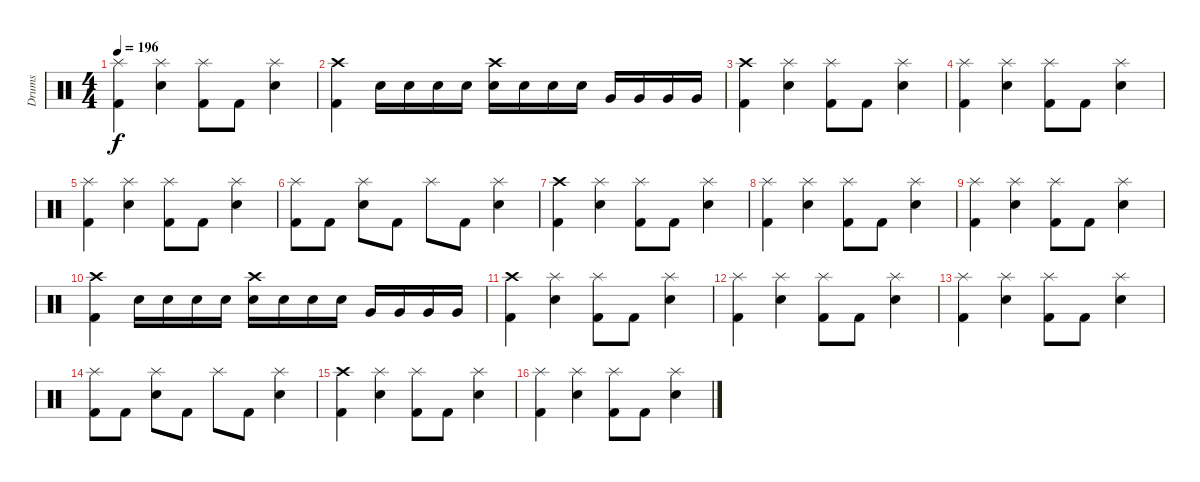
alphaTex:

\track ("Drums" "Drums") {instrument percussion}
\staff {score}
\articulation defaults
\ts (4 4)
\tempo 196
\clef neutral
\ks c
("Splash (hit)" "Kick (hit) 2").4{dy f} ("Splash (hit)" "Snare (hit) 2").4 ("Splash (hit)" "Kick (hit) 2").8 "Kick (hit) 2".8 ("Splash (hit)" "Snare (hit) 2").4 |
("Crash high (hit)" "Kick (hit) 2").4 "Snare (hit) 2".16 "Snare (hit) 2".16 "Snare (hit) 2".16 "Snare (hit) 2".16 ("Crash high (hit)" "Electric Snare (hit)").16 "Electric Snare (hit)".16 "Electric Snare (hit)".16 "Electric Snare (hit)".16 "Very Low Tom (hit)".16 "Very Low Tom (hit)".16 "Very Low Tom (hit)".16 "Very Low Tom (hit)".16 |
("Crash high (hit)" "Kick (hit) 2").4 ("Splash (hit)" "Snare (hit) 2").4 ("Splash (hit)" "Kick (hit) 2").8 "Kick (hit) 2".8 ("Splash (hit)" "Snare (hit) 2").4 |
("Splash (hit)" "Kick (hit) 2").4 ("Splash (hit)" "Snare (hit) 2").4 ("Splash (hit)" "Kick (hit) 2").8 "Kick (hit) 2".8 ("Splash (hit)" "Snare (hit) 2").4 |
("Splash (hit)" "Kick (hit) 2").4 ("Splash (hit)" "Snare (hit) 2").4 ("Splash (hit)" "Kick (hit) 2").8 "Kick (hit) 2".8 ("Splash (hit)" "Snare (hit) 2").4 |
("Splash (hit)" "Kick (hit) 2").8 "Kick (hit) 2".8 ("Splash (hit)" "Snare (hit) 2").8 "Kick (hit) 2".8 "Splash (hit)".8 "Kick (hit) 2".8 ("Splash (hit)" "Snare (hit) 2").4 |
("Crash high (hit)" "Kick (hit) 2").4 ("Splash (hit)" "Snare (hit) 2").4 ("Splash (hit)" "Kick (hit) 2").8 "Kick (hit) 2".8 ("Splash (hit)" "Snare (hit) 2").4 |
("Splash (hit)" "Kick (hit) 2").4 ("Splash (hit)" "Snare (hit) 2").4 ("Splash (hit)" "Kick (hit) 2").8 "Kick (hit) 2".8 ("Splash (hit)" "Snare (hit) 2").4 |
("Splash (hit)" "Kick (hit) 2").4 ("Splash (hit)" "Snare (hit) 2").4 ("Splash (hit)" "Kick (hit) 2").8 "Kick (hit) 2".8 ("Splash (hit)" "Snare (hit) 2").4 |
("Crash high (hit)" "Kick (hit) 2").4 "Snare (hit) 2".16 "Snare (hit) 2".16 "Snare (hit) 2".16 "Snare (hit) 2".16 ("Crash high (hit)" "Electric Snare (hit)").16 "Electric Snare (hit)".16 "Electric Snare (hit)".16 "Electric Snare (hit)".16 "Very Low Tom (hit)".16 "Very Low Tom (hit)".16 "Very Low Tom (hit)".16 "Very Low Tom (hit)".16 |
("Crash high (hit)" "Kick (hit) 2").4 ("Splash (hit)" "Snare (hit) 2").4 ("Splash (hit)" "Kick (hit) 2").8 "Kick (hit) 2".8 ("Splash (hit)" "Snare (hit) 2").4 |
("Splash (hit)" "Kick (hit) 2").4 ("Splash (hit)" "Snare (hit) 2").4 ("Splash (hit)" "Kick (hit) 2").8 "Kick (hit) 2".8 ("Splash (hit)" "Snare (hit) 2").4 |
("Splash (hit)" "Kick (hit) 2").4 ("Splash (hit)" "Snare (hit) 2").4 ("Splash (hit)" "Kick (hit) 2").8 "Kick (hit) 2".8 ("Splash (hit)" "Snare (hit) 2").4 |
("Splash (hit)" "Kick (hit) 2").8 "Kick (hit) 2".8 ("Splash (hit)" "Snare (hit) 2").8 "Kick (hit) 2".8 "Splash (hit)".8 "Kick (hit) 2".8 ("Splash (hit)" "Snare (hit) 2").4 |
("Crash high (hit)" "Kick (hit) 2").4 ("Splash (hit)" "Snare (hit) 2").4 ("Splash (hit)" "Kick (hit) 2").8 "Kick (hit) 2".8 ("Splash (hit)" "Snare (hit) 2").4 |
("Splash (hit)" "Kick (hit) 2").4 ("Splash (hit)" "Snare (hit) 2").4 ("Splash (hit)" "Kick (hit) 2").8 "Kick (hit) 2".8 ("Splash (hit)" "Snare (hit) 2").4
